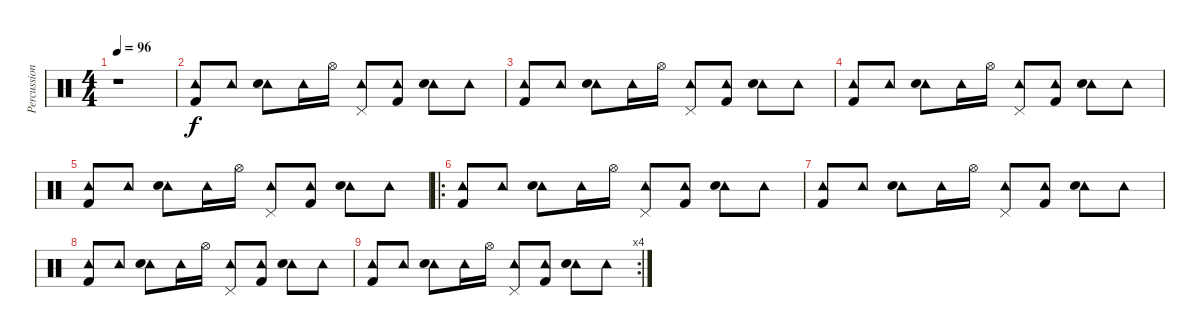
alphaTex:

\track ("Percussions" "Percussion") {instrument percussion}
\staff {score}
\articulation defaults
\ts (4 4)
\tempo 96
\clef neutral
\ks c
r.1{dy f} |
("Tambourine (hit)" "Kick (hit) 2").8 "Tambourine (hit)".8 ("Tambourine (hit)" "Snare (hit) 2").8 "Tambourine (hit)".16 "Hi-Hat (open)".16 ("Tambourine (hit)" "Pedal Hi-Hat (hit)").8 ("Tambourine (hit)" "Kick (hit) 2").8 ("Tambourine (hit)" "Snare (hit) 2").8 "Tambourine (hit)".8 |
("Tambourine (hit)" "Kick (hit) 2").8 "Tambourine (hit)".8 ("Tambourine (hit)" "Snare (hit) 2").8 "Tambourine (hit)".16 "Hi-Hat (open)".16 ("Tambourine (hit)" "Pedal Hi-Hat (hit)").8 ("Tambourine (hit)" "Kick (hit) 2").8 ("Tambourine (hit)" "Snare (hit) 2").8 "Tambourine (hit)".8 |
("Tambourine (hit)" "Kick (hit) 2").8 "Tambourine (hit)".8 ("Tambourine (hit)" "Snare (hit) 2").8 "Tambourine (hit)".16 "Hi-Hat (open)".16 ("Tambourine (hit)" "Pedal Hi-Hat (hit)").8 ("Tambourine (hit)" "Kick (hit) 2").8 ("Tambourine (hit)" "Snare (hit) 2").8 "Tambourine (hit)".8 |
("Tambourine (hit)" "Kick (hit) 2").8 "Tambourine (hit)".8 ("Tambourine (hit)" "Snare (hit) 2").8 "Tambourine (hit)".16 "Hi-Hat (open)".16 ("Tambourine (hit)" "Pedal Hi-Hat (hit)").8 ("Tambourine (hit)" "Kick (hit) 2").8 ("Tambourine (hit)" "Snare (hit) 2").8 "Tambourine (hit)".8 |
\ro
("Tambourine (hit)" "Kick (hit) 2").8 "Tambourine (hit)".8 ("Tambourine (hit)" "Snare (hit) 2").8 "Tambourine (hit)".16 "Hi-Hat (open)".16 ("Tambourine (hit)" "Pedal Hi-Hat (hit)").8 ("Tambourine (hit)" "Kick (hit) 2").8 ("Tambourine (hit)" "Snare (hit) 2").8 "Tambourine (hit)".8 |
("Tambourine (hit)" "Kick (hit) 2").8 "Tambourine (hit)".8 ("Tambourine (hit)" "Snare (hit) 2").8 "Tambourine (hit)".16 "Hi-Hat (open)".16 ("Tambourine (hit)" "Pedal Hi-Hat (hit)").8 ("Tambourine (hit)" "Kick (hit) 2").8 ("Tambourine (hit)" "Snare (hit) 2").8 "Tambourine (hit)".8 |
("Tambourine (hit)" "Kick (hit) 2").8 "Tambourine (hit)".8 ("Tambourine (hit)" "Snare (hit) 2").8 "Tambourine (hit)".16 "Hi-Hat (open)".16 ("Tambourine (hit)" "Pedal Hi-Hat (hit)").8 ("Tambourine (hit)" "Kick (hit) 2").8 ("Tambourine (hit)" "Snare (hit) 2").8 "Tambourine (hit)".8 |
\rc 4
("Tambourine (hit)" "Kick (hit) 2").8 "Tambourine (hit)".8 ("Tambourine (hit)" "Snare (hit) 2").8 "Tambourine (hit)".16 "Hi-Hat (open)".16 ("Tambourine (hit)" "Pedal Hi-Hat (hit)").8 ("Tambourine (hit)" "Kick (hit) 2").8 ("Tambourine (hit)" "Snare (hit) 2").8 "Tambourine (hit)".8
